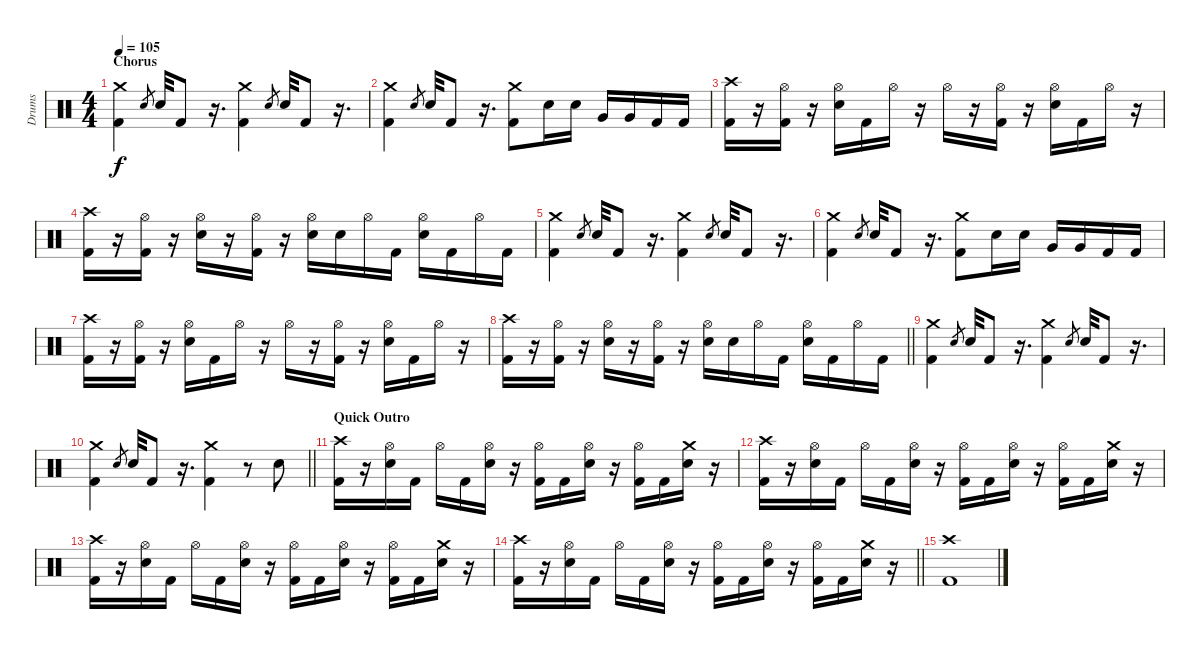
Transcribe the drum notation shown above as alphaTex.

\track ("Drums" "Drums") {instrument percussion}
\staff {score}
\articulation defaults
\ts (4 4)
\section ("" "Chorus")
\tempo 105
\clef neutral
\ks c
("Crash medium (hit)" "Kick (hit) 2").4{dy f} "Electric Snare (hit)".8{gr} "Electric Snare (hit)".32 "Kick (hit) 2".8 r.16{d} ("Crash medium (hit)" "Kick (hit) 2").4 "Electric Snare (hit)".8{gr} "Electric Snare (hit)".32 "Kick (hit) 2".8 r.16{d} |
("Crash medium (hit)" "Kick (hit) 2").4 "Electric Snare (hit)".8{gr} "Electric Snare (hit)".32 "Kick (hit) 2".8 r.16{d} ("Crash medium (hit)" "Kick (hit) 2").8 "Electric Snare (hit)".16 "Electric Snare (hit)".16 "Very Low Tom (hit)".16 "Very Low Tom (hit)".16 "Kick (hit) 2".16 "Kick (hit) 2".16 |
("Crash high (hit)" "Kick (hit) 2").16 r.16 ("Hi-Hat (open)" "Kick (hit) 2").16 r.16 ("Hi-Hat (open)" "Electric Snare (hit)").16 "Kick (hit) 2".16 "Hi-Hat (open)".16 r.16 "Hi-Hat (open)".16 r.16 ("Hi-Hat (open)" "Kick (hit) 2").16 r.16 ("Hi-Hat (open)" "Electric Snare (hit)").16 "Kick (hit) 2".16 "Hi-Hat (open)".16 r.16 |
("Crash high (hit)" "Kick (hit) 2").16 r.16 ("Hi-Hat (open)" "Kick (hit) 2").16 r.16 ("Hi-Hat (open)" "Electric Snare (hit)").16 r.16 ("Hi-Hat (open)" "Kick (hit) 2").16 r.16 ("Hi-Hat (open)" "Electric Snare (hit)").16 "Electric Snare (hit)".16 "Hi-Hat (open)".16 "Kick (hit) 2".16 ("Hi-Hat (open)" "Electric Snare (hit)").16 "Kick (hit) 2".16 "Hi-Hat (open)".16 "Kick (hit) 2".16 |
("Crash medium (hit)" "Kick (hit) 2").4 "Electric Snare (hit)".8{gr} "Electric Snare (hit)".32 "Kick (hit) 2".8 r.16{d} ("Crash medium (hit)" "Kick (hit) 2").4 "Electric Snare (hit)".8{gr} "Electric Snare (hit)".32 "Kick (hit) 2".8 r.16{d} |
("Crash medium (hit)" "Kick (hit) 2").4 "Electric Snare (hit)".8{gr} "Electric Snare (hit)".32 "Kick (hit) 2".8 r.16{d} ("Crash medium (hit)" "Kick (hit) 2").8 "Electric Snare (hit)".16 "Electric Snare (hit)".16 "Very Low Tom (hit)".16 "Very Low Tom (hit)".16 "Kick (hit) 2".16 "Kick (hit) 2".16 |
("Crash high (hit)" "Kick (hit) 2").16 r.16 ("Hi-Hat (open)" "Kick (hit) 2").16 r.16 ("Hi-Hat (open)" "Electric Snare (hit)").16 "Kick (hit) 2".16 "Hi-Hat (open)".16 r.16 "Hi-Hat (open)".16 r.16 ("Hi-Hat (open)" "Kick (hit) 2").16 r.16 ("Hi-Hat (open)" "Electric Snare (hit)").16 "Kick (hit) 2".16 "Hi-Hat (open)".16 r.16 |
\barLineRight lightlight
("Crash high (hit)" "Kick (hit) 2").16 r.16 ("Hi-Hat (open)" "Kick (hit) 2").16 r.16 ("Hi-Hat (open)" "Electric Snare (hit)").16 r.16 ("Hi-Hat (open)" "Kick (hit) 2").16 r.16 ("Hi-Hat (open)" "Electric Snare (hit)").16 "Electric Snare (hit)".16 "Hi-Hat (open)".16 "Kick (hit) 2".16 ("Hi-Hat (open)" "Electric Snare (hit)").16 "Kick (hit) 2".16 "Hi-Hat (open)".16 "Kick (hit) 2".16 |
("Crash medium (hit)" "Kick (hit) 2").4 "Electric Snare (hit)".8{gr} "Electric Snare (hit)".32 "Kick (hit) 2".8 r.16{d} ("Crash medium (hit)" "Kick (hit) 2").4 "Electric Snare (hit)".8{gr} "Electric Snare (hit)".32 "Kick (hit) 2".8 r.16{d} |
\barLineRight lightlight
("Crash medium (hit)" "Kick (hit) 2").4 "Electric Snare (hit)".8{gr} "Electric Snare (hit)".32 "Kick (hit) 2".8 r.16{d} ("Crash medium (hit)" "Kick (hit) 2").4 r.8 "Electric Snare (hit)".8 |
\section ("" "Quick Outro")
("Crash high (hit)" "Kick (hit) 2").16 r.16 ("Hi-Hat (open)" "Electric Snare (hit)").16 "Kick (hit) 2".16 "Hi-Hat (open)".16 "Kick (hit) 2".16 ("Hi-Hat (open)" "Electric Snare (hit)").16 r.16 ("Hi-Hat (open)" "Kick (hit) 2").16 "Kick (hit) 2".16 ("Hi-Hat (open)" "Electric Snare (hit)").16 r.16 ("Hi-Hat (open)" "Kick (hit) 2").16 "Kick (hit) 2".16 ("Crash medium (hit)" "Electric Snare (hit)").16 r.16 |
("Crash high (hit)" "Kick (hit) 2").16 r.16 ("Hi-Hat (open)" "Electric Snare (hit)").16 "Kick (hit) 2".16 "Hi-Hat (open)".16 "Kick (hit) 2".16 ("Hi-Hat (open)" "Electric Snare (hit)").16 r.16 ("Hi-Hat (open)" "Kick (hit) 2").16 "Kick (hit) 2".16 ("Hi-Hat (open)" "Electric Snare (hit)").16 r.16 ("Hi-Hat (open)" "Kick (hit) 2").16 "Kick (hit) 2".16 ("Crash medium (hit)" "Electric Snare (hit)").16 r.16 |
("Crash high (hit)" "Kick (hit) 2").16 r.16 ("Hi-Hat (open)" "Electric Snare (hit)").16 "Kick (hit) 2".16 "Hi-Hat (open)".16 "Kick (hit) 2".16 ("Hi-Hat (open)" "Electric Snare (hit)").16 r.16 ("Hi-Hat (open)" "Kick (hit) 2").16 "Kick (hit) 2".16 ("Hi-Hat (open)" "Electric Snare (hit)").16 r.16 ("Hi-Hat (open)" "Kick (hit) 2").16 "Kick (hit) 2".16 ("Crash medium (hit)" "Electric Snare (hit)").16 r.16 |
\barLineRight lightlight
("Crash high (hit)" "Kick (hit) 2").16 r.16 ("Hi-Hat (open)" "Electric Snare (hit)").16 "Kick (hit) 2".16 "Hi-Hat (open)".16 "Kick (hit) 2".16 ("Hi-Hat (open)" "Electric Snare (hit)").16 r.16 ("Hi-Hat (open)" "Kick (hit) 2").16 "Kick (hit) 2".16 ("Hi-Hat (open)" "Electric Snare (hit)").16 r.16 ("Hi-Hat (open)" "Kick (hit) 2").16 "Kick (hit) 2".16 ("Crash medium (hit)" "Electric Snare (hit)").16 r.16 |
("Crash high (hit)" "Kick (hit) 2").1
